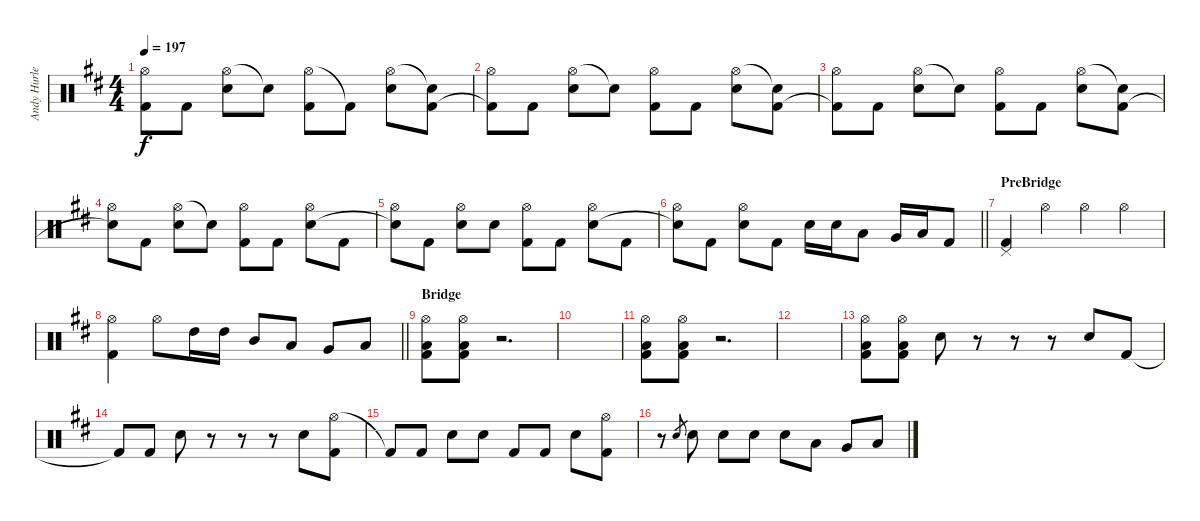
\track ("Andy Hurley (Drums)" "Andy Hurle") {instrument percussion}
\staff {score}
\articulation defaults
\ts (4 4)
\tempo 197
\clef neutral
\ks d
("Hi-Hat (open)" "Kick (hit) 2"{t}).8{dy f} "Kick (hit) 2".8 ("Hi-Hat (open)" "Electric Snare (hit)").8 "Snare (hit)"{t}.8 ("Hi-Hat (open)" "Kick (hit) 2").8 "Kick (hit) 2"{t}.8 ("Hi-Hat (open)" "Electric Snare (hit)").8 ("Snare (hit)"{t} "Kick (hit) 2").8 |
("Hi-Hat (open)" "Kick (hit) 2"{t}).8 "Kick (hit) 2".8 ("Hi-Hat (open)" "Electric Snare (hit)").8 "Snare (hit)"{t}.8 ("Hi-Hat (open)" "Kick (hit) 2").8 "Kick (hit) 2".8 ("Hi-Hat (open)" "Electric Snare (hit)").8 ("Snare (hit)"{t} "Kick (hit) 2").8 |
("Hi-Hat (open)" "Kick (hit) 2"{t}).8 "Kick (hit) 2".8 ("Hi-Hat (open)" "Electric Snare (hit)").8 "Snare (hit)"{t}.8 ("Hi-Hat (open)" "Kick (hit) 2").8 "Kick (hit) 2".8 ("Hi-Hat (open)" "Electric Snare (hit)").8 ("Snare (hit)"{t} "Kick (hit) 2").8 |
("Hi-Hat (open)" "Snare (hit)"{t}).8 "Kick (hit) 2".8 ("Hi-Hat (open)" "Electric Snare (hit)").8 "Snare (hit)"{t}.8 ("Hi-Hat (open)" "Kick (hit) 2").8 "Kick (hit) 2".8 ("Hi-Hat (open)" "Electric Snare (hit)").8 "Kick (hit) 2".8 |
("Hi-Hat (open)" "Snare (hit)"{t}).8 "Kick (hit) 2".8 ("Hi-Hat (open)" "Electric Snare (hit)").8 "Electric Snare (hit)".8 ("Hi-Hat (open)" "Kick (hit) 2").8 "Kick (hit) 2".8 ("Hi-Hat (open)" "Electric Snare (hit)").8 "Kick (hit) 2".8 |
\barLineRight lightlight
("Hi-Hat (open)" "Snare (hit)"{t}).8 "Kick (hit) 2".8 ("Hi-Hat (open)" "Electric Snare (hit)").8 "Kick (hit) 2".8 "Electric Snare (hit)".16 "Electric Snare (hit)".16 "Low Tom (hit)".8 "Very Low Tom (hit)".16 "Low Floor Tom (hit)".16 "Kick (hit) 2".8 |
\section ("" "PreBridge")
("Pedal Hi-Hat (hit)" "Kick (hit) 2").4 "Hi-Hat (open)".4 "Hi-Hat (open)".4 "Hi-Hat (open)".4 |
\barLineRight lightlight
("Hi-Hat (open)" "Kick (hit) 2").4 "Hi-Hat (open)".8 "High Tom (hit)".16 "High Tom (hit)".16 "Mid Tom (hit)".8 "Low Tom (hit)".8 "Very Low Tom (hit)".8 "Low Floor Tom (hit)".8 |
\section ("" "Bridge")
("Hi-Hat (open)" "Low Floor Tom (hit)" "Kick (hit) 2").8 ("Hi-Hat (open)" "Low Floor Tom (hit)" "Kick (hit) 2").8 r.2{d} |
|
("Hi-Hat (open)" "Low Floor Tom (hit)" "Kick (hit) 2").8 ("Hi-Hat (open)" "Low Floor Tom (hit)" "Kick (hit) 2").8 r.2{d} |
|
("Hi-Hat (open)" "Low Floor Tom (hit)" "Kick (hit) 2").8 ("Hi-Hat (open)" "Low Floor Tom (hit)" "Kick (hit) 2").8 "Electric Snare (hit)".8 r.8 r.8 r.8 "Electric Snare (hit)".8 "Kick (hit) 2".8 |
"Kick (hit) 2"{t}.8 "Kick (hit) 2".8 "Electric Snare (hit)".8 r.8 r.8 r.8 "Electric Snare (hit)".8 ("Hi-Hat (open)" "Kick (hit) 2").8 |
"Kick (hit) 2"{t}.8 "Kick (hit) 2".8 "Electric Snare (hit)".8 "Electric Snare (hit)".8 "Kick (hit) 2".8 "Kick (hit) 2".8 "Electric Snare (hit)".8 ("Hi-Hat (open)" "Kick (hit) 2").8 |
r.8 "Electric Snare (hit)".8{gr} "Electric Snare (hit)".8 "Electric Snare (hit)".8 "Electric Snare (hit)".8 "Electric Snare (hit)".8 "Low Tom (hit)".8 "Very Low Tom (hit)".8 "Low Floor Tom (hit)".8
